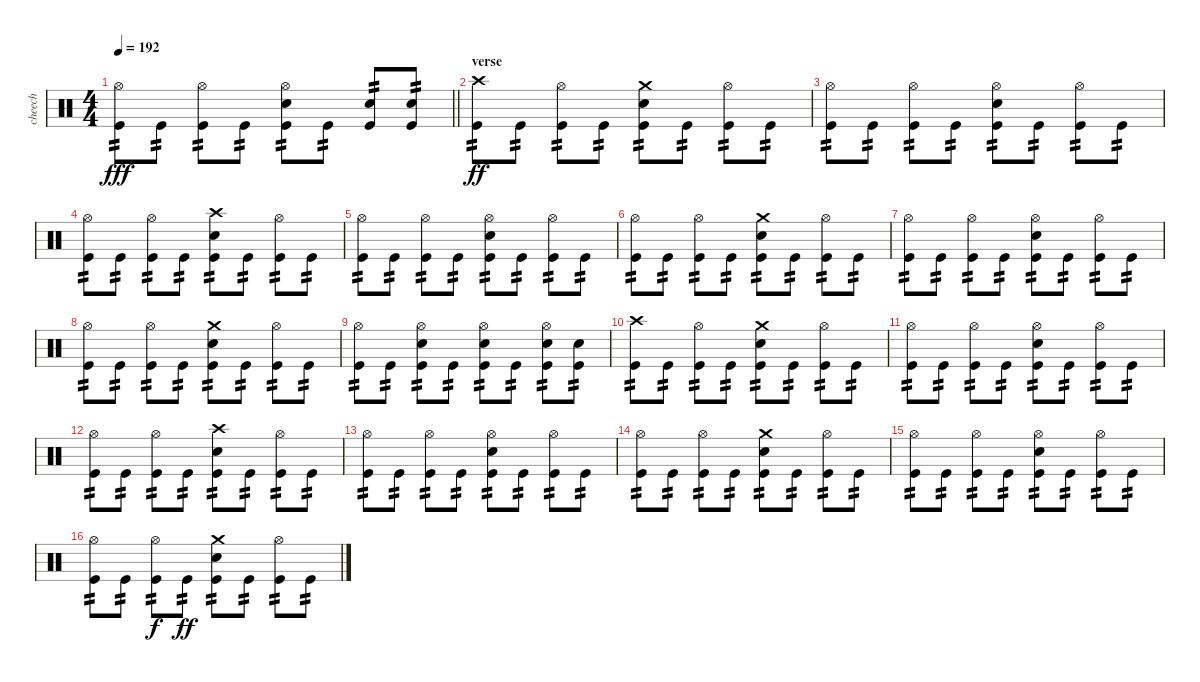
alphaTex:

\track ("cheech" "cheech") {instrument percussion}
\staff {score}
\articulation defaults
\ts (4 4)
\tempo 192
\clef neutral
\barLineRight lightlight
\ks c
("Hi-Hat (open)" "Kick (hit)").8{tp 2 dy fff} "Kick (hit)".8{tp 2} ("Hi-Hat (open)" "Kick (hit)").8{tp 2} "Kick (hit)".8{tp 2} ("Hi-Hat (open)" "Electric Snare (hit)" "Kick (hit)").8{tp 2} "Kick (hit)".8{tp 2} ("Electric Snare (hit)" "Kick (hit)").8{tp 2} ("Electric Snare (hit)" "Kick (hit)").8{tp 2} |
\section ("" "verse")
("Crash high (hit)" "Kick (hit)").8{tp 2 dy ff} "Kick (hit)".8{tp 2} ("Hi-Hat (open)" "Kick (hit)").8{tp 2} "Kick (hit)".8{tp 2} ("Crash medium (hit)" "Electric Snare (hit)" "Kick (hit)").8{tp 2} "Kick (hit)".8{tp 2} ("Hi-Hat (open)" "Kick (hit)").8{tp 2} "Kick (hit)".8{tp 2} |
("Hi-Hat (open)" "Kick (hit)").8{tp 2} "Kick (hit)".8{tp 2} ("Hi-Hat (open)" "Kick (hit)").8{tp 2} "Kick (hit)".8{tp 2} ("Hi-Hat (open)" "Electric Snare (hit)" "Kick (hit)").8{tp 2} "Kick (hit)".8{tp 2} ("Hi-Hat (open)" "Kick (hit)").8{tp 2} "Kick (hit)".8{tp 2} |
("Hi-Hat (open)" "Kick (hit)").8{tp 2} "Kick (hit)".8{tp 2} ("Hi-Hat (open)" "Kick (hit)").8{tp 2} "Kick (hit)".8{tp 2} ("Crash high (hit)" "Electric Snare (hit)" "Kick (hit)").8{tp 2} "Kick (hit)".8{tp 2} ("Hi-Hat (open)" "Kick (hit)").8{tp 2} "Kick (hit)".8{tp 2} |
("Hi-Hat (open)" "Kick (hit)").8{tp 2} "Kick (hit)".8{tp 2} ("Hi-Hat (open)" "Kick (hit)").8{tp 2} "Kick (hit)".8{tp 2} ("Hi-Hat (open)" "Electric Snare (hit)" "Kick (hit)").8{tp 2} "Kick (hit)".8{tp 2} ("Hi-Hat (open)" "Kick (hit)").8{tp 2} "Kick (hit)".8{tp 2} |
("Hi-Hat (open)" "Kick (hit)").8{tp 2} "Kick (hit)".8{tp 2} ("Hi-Hat (open)" "Kick (hit)").8{tp 2} "Kick (hit)".8{tp 2} ("Crash medium (hit)" "Electric Snare (hit)" "Kick (hit)").8{tp 2} "Kick (hit)".8{tp 2} ("Hi-Hat (open)" "Kick (hit)").8{tp 2} "Kick (hit)".8{tp 2} |
("Hi-Hat (open)" "Kick (hit)").8{tp 2} "Kick (hit)".8{tp 2} ("Hi-Hat (open)" "Kick (hit)").8{tp 2} "Kick (hit)".8{tp 2} ("Hi-Hat (open)" "Electric Snare (hit)" "Kick (hit)").8{tp 2} "Kick (hit)".8{tp 2} ("Hi-Hat (open)" "Kick (hit)").8{tp 2} "Kick (hit)".8{tp 2} |
("Hi-Hat (open)" "Kick (hit)").8{tp 2} "Kick (hit)".8{tp 2} ("Hi-Hat (open)" "Kick (hit)").8{tp 2} "Kick (hit)".8{tp 2} ("Crash medium (hit)" "Electric Snare (hit)" "Kick (hit)").8{tp 2} "Kick (hit)".8{tp 2} ("Hi-Hat (open)" "Kick (hit)").8{tp 2} "Kick (hit)".8{tp 2} |
("Hi-Hat (open)" "Kick (hit)").8{tp 2} "Kick (hit)".8{tp 2} ("Hi-Hat (open)" "Electric Snare (hit)" "Kick (hit)").8{tp 2} "Kick (hit)".8{tp 2} ("Hi-Hat (open)" "Electric Snare (hit)" "Kick (hit)").8{tp 2} "Kick (hit)".8{tp 2} ("Hi-Hat (open)" "Electric Snare (hit)" "Kick (hit)").8{tp 2} ("Electric Snare (hit)" "Kick (hit)").8{tp 2} |
("Crash high (hit)" "Kick (hit)").8{tp 2} "Kick (hit)".8{tp 2} ("Hi-Hat (open)" "Kick (hit)").8{tp 2} "Kick (hit)".8{tp 2} ("Crash medium (hit)" "Electric Snare (hit)" "Kick (hit)").8{tp 2} "Kick (hit)".8{tp 2} ("Hi-Hat (open)" "Kick (hit)").8{tp 2} "Kick (hit)".8{tp 2} |
("Hi-Hat (open)" "Kick (hit)").8{tp 2} "Kick (hit)".8{tp 2} ("Hi-Hat (open)" "Kick (hit)").8{tp 2} "Kick (hit)".8{tp 2} ("Hi-Hat (open)" "Electric Snare (hit)" "Kick (hit)").8{tp 2} "Kick (hit)".8{tp 2} ("Hi-Hat (open)" "Kick (hit)").8{tp 2} "Kick (hit)".8{tp 2} |
("Hi-Hat (open)" "Kick (hit)").8{tp 2} "Kick (hit)".8{tp 2} ("Hi-Hat (open)" "Kick (hit)").8{tp 2} "Kick (hit)".8{tp 2} ("Crash high (hit)" "Electric Snare (hit)" "Kick (hit)").8{tp 2} "Kick (hit)".8{tp 2} ("Hi-Hat (open)" "Kick (hit)").8{tp 2} "Kick (hit)".8{tp 2} |
("Hi-Hat (open)" "Kick (hit)").8{tp 2} "Kick (hit)".8{tp 2} ("Hi-Hat (open)" "Kick (hit)").8{tp 2} "Kick (hit)".8{tp 2} ("Hi-Hat (open)" "Electric Snare (hit)" "Kick (hit)").8{tp 2} "Kick (hit)".8{tp 2} ("Hi-Hat (open)" "Kick (hit)").8{tp 2} "Kick (hit)".8{tp 2} |
("Hi-Hat (open)" "Kick (hit)").8{tp 2} "Kick (hit)".8{tp 2} ("Hi-Hat (open)" "Kick (hit)").8{tp 2} "Kick (hit)".8{tp 2} ("Crash medium (hit)" "Electric Snare (hit)" "Kick (hit)").8{tp 2} "Kick (hit)".8{tp 2} ("Hi-Hat (open)" "Kick (hit)").8{tp 2} "Kick (hit)".8{tp 2} |
("Hi-Hat (open)" "Kick (hit)").8{tp 2} "Kick (hit)".8{tp 2} ("Hi-Hat (open)" "Kick (hit)").8{tp 2} "Kick (hit)".8{tp 2} ("Hi-Hat (open)" "Electric Snare (hit)" "Kick (hit)").8{tp 2} "Kick (hit)".8{tp 2} ("Hi-Hat (open)" "Kick (hit)").8{tp 2} "Kick (hit)".8{tp 2} |
("Hi-Hat (open)" "Kick (hit)").8{tp 2} "Kick (hit)".8{tp 2} ("Hi-Hat (open)" "Kick (hit)").8{tp 2 dy f} "Kick (hit)".8{tp 2 dy ff} ("Crash medium (hit)" "Electric Snare (hit)" "Kick (hit)").8{tp 2} "Kick (hit)".8{tp 2} ("Hi-Hat (open)" "Kick (hit)").8{tp 2} "Kick (hit)".8{tp 2}
